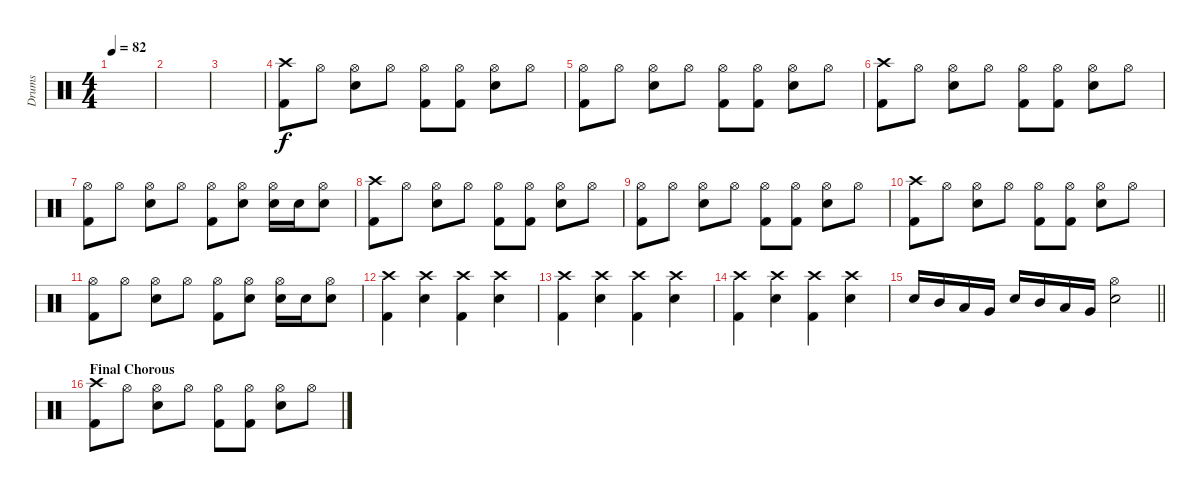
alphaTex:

\track ("Drums" "Drums") {instrument percussion}
\staff {score}
\articulation defaults
\ts (4 4)
\tempo 82
\clef neutral
\ks c
|
|
|
("Crash high (hit)" "Kick (hit) 2").8 "Hi-Hat (open)".8 ("Hi-Hat (open)" "Snare (hit) 2").8 "Hi-Hat (open)".8 ("Hi-Hat (open)" "Kick (hit) 2").8 ("Hi-Hat (open)" "Kick (hit) 2").8 ("Hi-Hat (open)" "Snare (hit) 2").8 "Hi-Hat (open)".8 |
("Hi-Hat (open)" "Kick (hit) 2").8 "Hi-Hat (open)".8 ("Hi-Hat (open)" "Snare (hit) 2").8 "Hi-Hat (open)".8 ("Hi-Hat (open)" "Kick (hit) 2").8 ("Hi-Hat (open)" "Kick (hit) 2").8 ("Hi-Hat (open)" "Snare (hit) 2").8 "Hi-Hat (open)".8 |
("Crash high (hit)" "Kick (hit) 2").8 "Hi-Hat (open)".8 ("Hi-Hat (open)" "Snare (hit) 2").8 "Hi-Hat (open)".8 ("Hi-Hat (open)" "Kick (hit) 2").8 ("Hi-Hat (open)" "Kick (hit) 2").8 ("Hi-Hat (open)" "Snare (hit) 2").8 "Hi-Hat (open)".8 |
("Hi-Hat (open)" "Kick (hit) 2").8 "Hi-Hat (open)".8 ("Hi-Hat (open)" "Snare (hit) 2").8 "Hi-Hat (open)".8 ("Hi-Hat (open)" "Kick (hit) 2").8 ("Hi-Hat (open)" "Snare (hit) 2").8 ("Hi-Hat (open)" "Snare (hit) 2").16 "Snare (hit) 2".16 ("Hi-Hat (open)" "Snare (hit) 2").8 |
("Crash high (hit)" "Kick (hit) 2").8 "Hi-Hat (open)".8 ("Hi-Hat (open)" "Snare (hit) 2").8 "Hi-Hat (open)".8 ("Hi-Hat (open)" "Kick (hit) 2").8 ("Hi-Hat (open)" "Kick (hit) 2").8 ("Hi-Hat (open)" "Snare (hit) 2").8 "Hi-Hat (open)".8 |
("Hi-Hat (open)" "Kick (hit) 2").8 "Hi-Hat (open)".8 ("Hi-Hat (open)" "Snare (hit) 2").8 "Hi-Hat (open)".8 ("Hi-Hat (open)" "Kick (hit) 2").8 ("Hi-Hat (open)" "Kick (hit) 2").8 ("Hi-Hat (open)" "Snare (hit) 2").8 "Hi-Hat (open)".8 |
("Crash high (hit)" "Kick (hit) 2").8 "Hi-Hat (open)".8 ("Hi-Hat (open)" "Snare (hit) 2").8 "Hi-Hat (open)".8 ("Hi-Hat (open)" "Kick (hit) 2").8 ("Hi-Hat (open)" "Kick (hit) 2").8 ("Hi-Hat (open)" "Snare (hit) 2").8 "Hi-Hat (open)".8 |
("Hi-Hat (open)" "Kick (hit) 2").8 "Hi-Hat (open)".8 ("Hi-Hat (open)" "Snare (hit) 2").8 "Hi-Hat (open)".8 ("Hi-Hat (open)" "Kick (hit) 2").8 ("Hi-Hat (open)" "Snare (hit) 2").8 ("Hi-Hat (open)" "Snare (hit) 2").16 "Snare (hit) 2".16 ("Hi-Hat (open)" "Snare (hit) 2").8 |
("Crash high (hit)" "Kick (hit) 2").4 ("Crash high (hit)" "Snare (hit) 2").4 ("Crash high (hit)" "Kick (hit) 2").4 ("Crash high (hit)" "Snare (hit) 2").4 |
("Crash high (hit)" "Kick (hit) 2").4 ("Crash high (hit)" "Snare (hit) 2").4 ("Crash high (hit)" "Kick (hit) 2").4 ("Crash high (hit)" "Snare (hit) 2").4 |
("Crash high (hit)" "Kick (hit) 2").4 ("Crash high (hit)" "Snare (hit) 2").4 ("Crash high (hit)" "Kick (hit) 2").4 ("Crash high (hit)" "Snare (hit) 2").4 |
\barLineRight lightlight "Snare (hit) 2".16 "Mid Tom (hit)".16 "Low Tom (hit)".16 "Very Low Tom (hit)".16 "Snare (hit) 2".16 "Mid Tom (hit)".16 "Low Tom (hit)".16 "Very Low Tom (hit)".16
("Hi-Hat (open)" "Snare (hit) 2").2 |
\section ("" "Final Chorous")
("Crash high (hit)" "Kick (hit) 2").8 "Hi-Hat (open)".8 ("Hi-Hat (open)" "Snare (hit) 2").8 "Hi-Hat (open)".8 ("Hi-Hat (open)" "Kick (hit) 2").8 ("Hi-Hat (open)" "Kick (hit) 2").8 ("Hi-Hat (open)" "Snare (hit) 2").8 "Hi-Hat (open)".8
